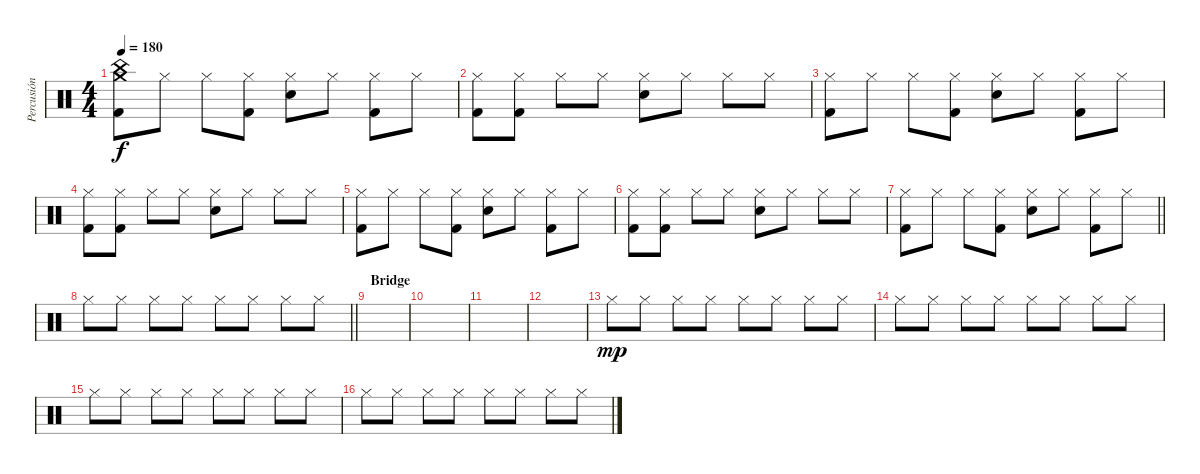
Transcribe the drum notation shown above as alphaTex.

\track ("Percusión" "Percusión") {instrument percussion}
\staff {score}
\articulation defaults
\ts (4 4)
\tempo 180
\clef neutral
\ks c
("Crash medium (hit)" "China (hit)" "Kick (hit) 2").8{dy f} "Hi-Hat (closed)".8 "Hi-Hat (closed)".8 ("Hi-Hat (closed)" "Kick (hit) 2").8 ("Hi-Hat (closed)" "Snare (hit) 2").8 "Hi-Hat (closed)".8 ("Hi-Hat (closed)" "Kick (hit) 2").8 "Hi-Hat (closed)".8 |
("Hi-Hat (closed)" "Kick (hit) 2").8 ("Hi-Hat (closed)" "Kick (hit) 2").8 "Hi-Hat (closed)".8 "Hi-Hat (closed)".8 ("Hi-Hat (closed)" "Snare (hit) 2").8 "Hi-Hat (closed)".8 "Hi-Hat (closed)".8 "Hi-Hat (closed)".8 |
("Hi-Hat (closed)" "Kick (hit) 2").8 "Hi-Hat (closed)".8 "Hi-Hat (closed)".8 ("Hi-Hat (closed)" "Kick (hit) 2").8 ("Hi-Hat (closed)" "Snare (hit) 2").8 "Hi-Hat (closed)".8 ("Hi-Hat (closed)" "Kick (hit) 2").8 "Hi-Hat (closed)".8 |
("Hi-Hat (closed)" "Kick (hit) 2").8 ("Hi-Hat (closed)" "Kick (hit) 2").8 "Hi-Hat (closed)".8 "Hi-Hat (closed)".8 ("Hi-Hat (closed)" "Snare (hit) 2").8 "Hi-Hat (closed)".8 "Hi-Hat (closed)".8 "Hi-Hat (closed)".8 |
("Hi-Hat (closed)" "Kick (hit) 2").8 "Hi-Hat (closed)".8 "Hi-Hat (closed)".8 ("Hi-Hat (closed)" "Kick (hit) 2").8 ("Hi-Hat (closed)" "Snare (hit) 2").8 "Hi-Hat (closed)".8 ("Hi-Hat (closed)" "Kick (hit) 2").8 "Hi-Hat (closed)".8 |
("Hi-Hat (closed)" "Kick (hit) 2").8 ("Hi-Hat (closed)" "Kick (hit) 2").8 "Hi-Hat (closed)".8 "Hi-Hat (closed)".8 ("Hi-Hat (closed)" "Snare (hit) 2").8 "Hi-Hat (closed)".8 "Hi-Hat (closed)".8 "Hi-Hat (closed)".8 |
\barLineRight lightlight
("Hi-Hat (closed)" "Kick (hit) 2").8 "Hi-Hat (closed)".8 "Hi-Hat (closed)".8 ("Hi-Hat (closed)" "Kick (hit) 2").8 ("Hi-Hat (closed)" "Snare (hit) 2").8 "Hi-Hat (closed)".8 ("Hi-Hat (closed)" "Kick (hit) 2").8 "Hi-Hat (closed)".8 |
\barLineRight lightlight "Hi-Hat (closed)".8 "Hi-Hat (closed)".8 "Hi-Hat (closed)".8 "Hi-Hat (closed)".8 "Hi-Hat (closed)".8 "Hi-Hat (closed)".8 "Hi-Hat (closed)".8 "Hi-Hat (closed)".8
|
\section ("" "Bridge")
|
|
|
|
"Hi-Hat (closed)".8{dy mp} "Hi-Hat (closed)".8 "Hi-Hat (closed)".8 "Hi-Hat (closed)".8 "Hi-Hat (closed)".8 "Hi-Hat (closed)".8 "Hi-Hat (closed)".8 "Hi-Hat (closed)".8 |
"Hi-Hat (closed)".8 "Hi-Hat (closed)".8 "Hi-Hat (closed)".8 "Hi-Hat (closed)".8 "Hi-Hat (closed)".8 "Hi-Hat (closed)".8 "Hi-Hat (closed)".8 "Hi-Hat (closed)".8 |
"Hi-Hat (closed)".8 "Hi-Hat (closed)".8 "Hi-Hat (closed)".8 "Hi-Hat (closed)".8 "Hi-Hat (closed)".8 "Hi-Hat (closed)".8 "Hi-Hat (closed)".8 "Hi-Hat (closed)".8 |
"Hi-Hat (closed)".8 "Hi-Hat (closed)".8 "Hi-Hat (closed)".8 "Hi-Hat (closed)".8 "Hi-Hat (closed)".8 "Hi-Hat (closed)".8 "Hi-Hat (closed)".8 "Hi-Hat (closed)".8
